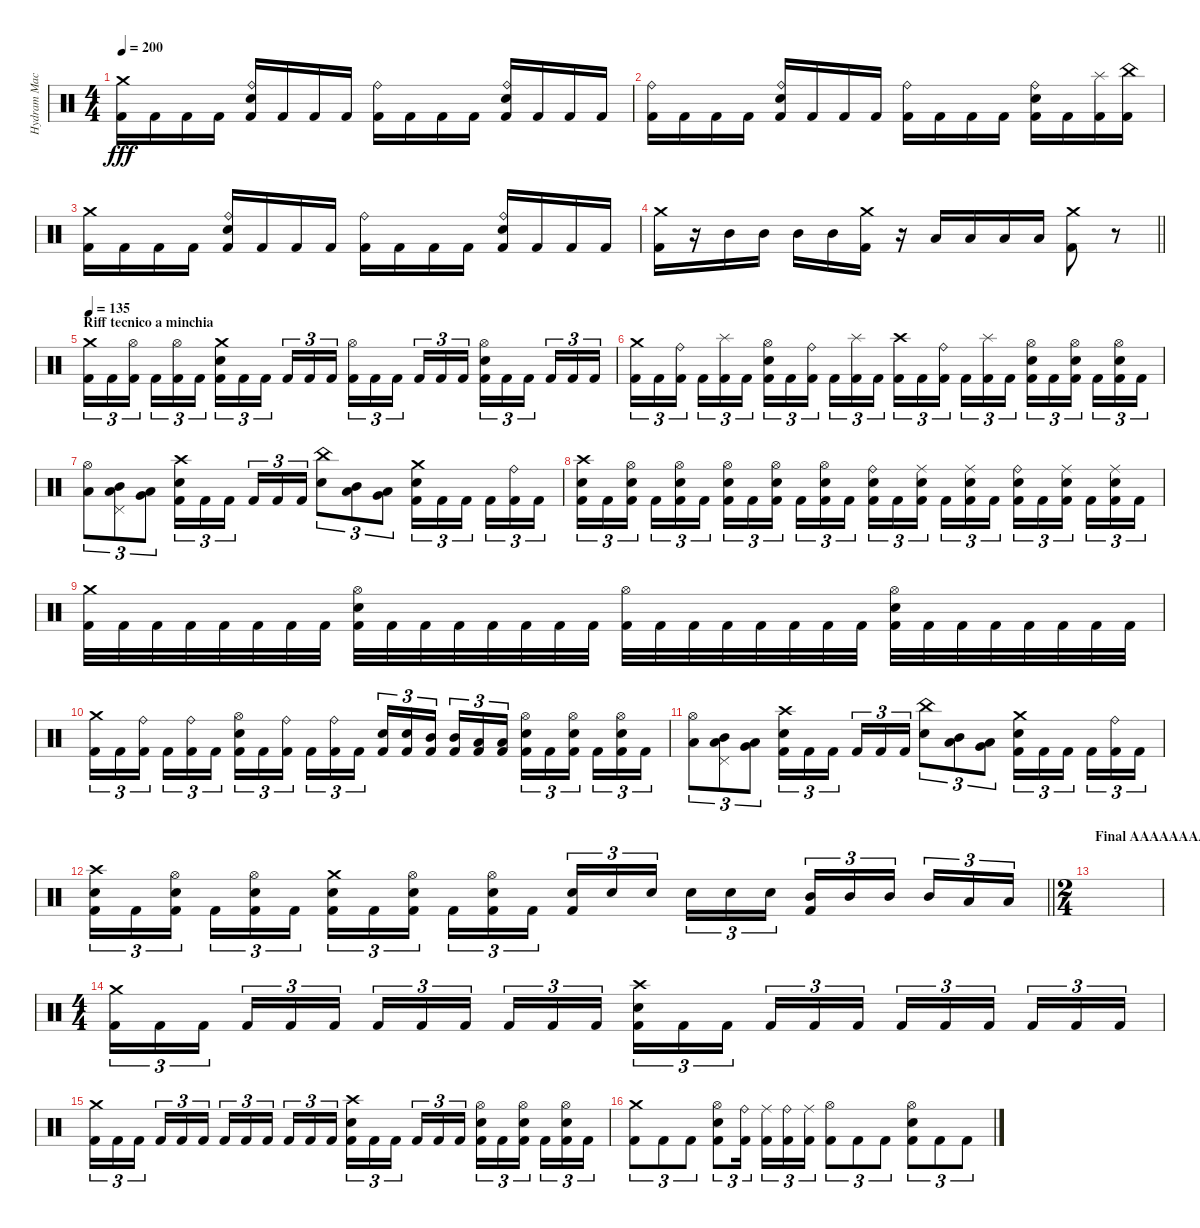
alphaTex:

\track ("Hydram Machine" "Hydram Mac") {instrument percussion}
\staff {score}
\articulation defaults
\ts (4 4)
\tempo 200
\clef neutral
\ks c
("Crash medium (hit)" "Kick (hit) 2").16{dy fff} "Kick (hit) 2".16 "Kick (hit) 2".16 "Kick (hit) 2".16 ("Ride (bell)" "Electric Snare (hit)" "Kick (hit) 2").16 "Kick (hit) 2".16 "Kick (hit) 2".16 "Kick (hit) 2".16 ("Ride (bell)" "Kick (hit) 2").16 "Kick (hit) 2".16 "Kick (hit) 2".16 "Kick (hit) 2".16 ("Ride (bell)" "Electric Snare (hit)" "Kick (hit) 2").16 "Kick (hit) 2".16 "Kick (hit) 2".16 "Kick (hit) 2".16 |
("Ride (bell)" "Kick (hit) 2").16 "Kick (hit) 2".16 "Kick (hit) 2".16 "Kick (hit) 2".16 ("Ride (bell)" "Electric Snare (hit)" "Kick (hit) 2").16 "Kick (hit) 2".16 "Kick (hit) 2".16 "Kick (hit) 2".16 ("Ride (bell)" "Kick (hit) 2").16 "Kick (hit) 2".16 "Kick (hit) 2".16 "Kick (hit) 2".16 ("Ride (bell)" "Electric Snare (hit)" "Kick (hit) 2").16 "Kick (hit) 2".16 ("Splash (hit)" "Kick (hit) 2").16 ("China (hit)" "Kick (hit) 2").16 |
("Crash medium (hit)" "Kick (hit) 2").16 "Kick (hit) 2".16 "Kick (hit) 2".16 "Kick (hit) 2".16 ("Ride (bell)" "Electric Snare (hit)" "Kick (hit) 2").16 "Kick (hit) 2".16 "Kick (hit) 2".16 "Kick (hit) 2".16 ("Ride (bell)" "Kick (hit) 2").16 "Kick (hit) 2".16 "Kick (hit) 2".16 "Kick (hit) 2".16 ("Ride (bell)" "Electric Snare (hit)" "Kick (hit) 2").16 "Kick (hit) 2".16 "Kick (hit) 2".16 "Kick (hit) 2".16 |
\barLineRight lightlight
("Crash medium (hit)" "Kick (hit) 2").16 r.16 "Mid Tom (hit)".16 "Mid Tom (hit)".16 "Mid Tom (hit)".16 "Mid Tom (hit)".16 ("Crash medium (hit)" "Kick (hit) 2").16 r.16 "Low Tom (hit)".16 "Low Tom (hit)".16 "Low Tom (hit)".16 "Low Tom (hit)".16 ("Crash medium (hit)" "Kick (hit) 2").8 r.8 |
\section ("" "Riff tecnico a minchia")
\tempo 135
("Crash medium (hit)" "Kick (hit) 2").16{tu (3 2)} "Kick (hit) 2".16{tu (3 2)} ("Hi-Hat (open)" "Kick (hit) 2").16{tu (3 2) beam splitsecondary} "Kick (hit) 2".16{tu (3 2)} ("Hi-Hat (open)" "Kick (hit) 2").16{tu (3 2)} "Kick (hit) 2".16{tu (3 2)} ("Crash medium (hit)" "Electric Snare (hit)" "Kick (hit) 2").16{tu (3 2)} "Kick (hit) 2".16{tu (3 2)} "Kick (hit) 2".16{tu (3 2) beam splitsecondary} "Kick (hit) 2".16{tu (3 2)} "Kick (hit) 2".16{tu (3 2)} "Kick (hit) 2".16{tu (3 2)} ("Hi-Hat (open)" "Kick (hit) 2").16{tu (3 2)} "Kick (hit) 2".16{tu (3 2)} "Kick (hit) 2".16{tu (3 2) beam splitsecondary} "Kick (hit) 2".16{tu (3 2)} "Kick (hit) 2".16{tu (3 2)} "Kick (hit) 2".16{tu (3 2)} ("Hi-Hat (open)" "Electric Snare (hit)" "Kick (hit) 2").16{tu (3 2)} "Kick (hit) 2".16{tu (3 2)} "Kick (hit) 2".16{tu (3 2) beam splitsecondary} "Kick (hit) 2".16{tu (3 2)} "Kick (hit) 2".16{tu (3 2)} "Kick (hit) 2".16{tu (3 2)} |
("Crash medium (hit)" "Kick (hit) 2").16{tu (3 2)} "Kick (hit) 2".16{tu (3 2)} ("Ride (bell)" "Kick (hit) 2").16{tu (3 2) beam splitsecondary} "Kick (hit) 2".16{tu (3 2)} ("Splash (hit)" "Kick (hit) 2").16{tu (3 2)} "Kick (hit) 2".16{tu (3 2)} ("Hi-Hat (open)" "Electric Snare (hit)" "Kick (hit) 2").16{tu (3 2)} "Kick (hit) 2".16{tu (3 2)} ("Ride (bell)" "Kick (hit) 2").16{tu (3 2) beam splitsecondary} "Kick (hit) 2".16{tu (3 2)} ("Splash (hit)" "Kick (hit) 2").16{tu (3 2)} "Kick (hit) 2".16{tu (3 2)} ("Crash high (hit)" "Kick (hit) 2").16{tu (3 2)} "Kick (hit) 2".16{tu (3 2)} ("Ride (bell)" "Kick (hit) 2").16{tu (3 2) beam splitsecondary} "Kick (hit) 2".16{tu (3 2)} ("Splash (hit)" "Kick (hit) 2").16{tu (3 2)} "Kick (hit) 2".16{tu (3 2)} ("Hi-Hat (open)" "Electric Snare (hit)" "Kick (hit) 2").16{tu (3 2)} "Kick (hit) 2".16{tu (3 2)} ("Hi-Hat (open)" "Electric Snare (hit)" "Kick (hit) 2").16{tu (3 2) beam splitsecondary} "Kick (hit) 2".16{tu (3 2)} ("Hi-Hat (open)" "Electric Snare (hit)" "Kick (hit) 2").16{tu (3 2)} "Kick (hit) 2".16{tu (3 2)} |
("Hi-Hat (open)" "Low Tom (hit)").8{tu (3 2)} ("Pedal Hi-Hat (hit)" "Mid Tom (hit)" "Low Tom (hit)").8{tu (3 2)} ("Low Tom (hit)" "Very Low Tom (hit)").8{tu (3 2)} ("Crash high (hit)" "Electric Snare (hit)" "Kick (hit) 2").16{tu (3 2)} "Kick (hit) 2".16{tu (3 2)} "Kick (hit) 2".16{tu (3 2) beam splitsecondary} "Kick (hit) 2".16{tu (3 2)} "Kick (hit) 2".16{tu (3 2)} "Kick (hit) 2".16{tu (3 2)} ("China (hit)" "Electric Snare (hit)").8{tu (3 2)} ("Mid Tom (hit)" "Low Tom (hit)").8{tu (3 2)} ("Low Tom (hit)" "Very Low Tom (hit)").8{tu (3 2)} ("Crash medium (hit)" "Electric Snare (hit)" "Kick (hit) 2").16{tu (3 2)} "Kick (hit) 2".16{tu (3 2)} "Kick (hit) 2".16{tu (3 2) beam splitsecondary} "Kick (hit) 2".16{tu (3 2)} ("Ride (bell)" "Kick (hit) 2").16{tu (3 2)} "Kick (hit) 2".16{tu (3 2)} |
("Crash high (hit)" "Electric Snare (hit)" "Kick (hit) 2").16{tu (3 2)} "Kick (hit) 2".16{tu (3 2)} ("Hi-Hat (open)" "Electric Snare (hit)" "Kick (hit) 2").16{tu (3 2) beam splitsecondary} "Kick (hit) 2".16{tu (3 2)} ("Hi-Hat (open)" "Electric Snare (hit)" "Kick (hit) 2").16{tu (3 2)} "Kick (hit) 2".16{tu (3 2)} ("Hi-Hat (open)" "Electric Snare (hit)" "Kick (hit) 2").16{tu (3 2)} "Kick (hit) 2".16{tu (3 2)} ("Hi-Hat (open)" "Electric Snare (hit)" "Kick (hit) 2").16{tu (3 2) beam splitsecondary} "Kick (hit) 2".16{tu (3 2)} ("Hi-Hat (open)" "Electric Snare (hit)" "Kick (hit) 2").16{tu (3 2)} "Kick (hit) 2".16{tu (3 2)} ("Ride (bell)" "Electric Snare (hit)" "Kick (hit) 2").16{tu (3 2)} "Kick (hit) 2".16{tu (3 2)} ("Ride (middle)" "Electric Snare (hit)" "Kick (hit) 2").16{tu (3 2) beam splitsecondary} "Kick (hit) 2".16{tu (3 2)} ("Ride (middle)" "Electric Snare (hit)" "Kick (hit) 2").16{tu (3 2)} "Kick (hit) 2".16{tu (3 2)} ("Ride (bell)" "Electric Snare (hit)" "Kick (hit) 2").16{tu (3 2)} "Kick (hit) 2".16{tu (3 2)} ("Ride (middle)" "Electric Snare (hit)" "Kick (hit) 2").16{tu (3 2) beam splitsecondary} "Kick (hit) 2".16{tu (3 2)} ("Ride (middle)" "Electric Snare (hit)" "Kick (hit) 2").16{tu (3 2)} "Kick (hit) 2".16{tu (3 2)} |
("Crash medium (hit)" "Kick (hit) 2").32 "Kick (hit) 2".32 "Kick (hit) 2".32 "Kick (hit) 2".32 "Kick (hit) 2".32 "Kick (hit) 2".32 "Kick (hit) 2".32 "Kick (hit) 2".32 ("Hi-Hat (open)" "Electric Snare (hit)" "Kick (hit) 2").32 "Kick (hit) 2".32 "Kick (hit) 2".32 "Kick (hit) 2".32 "Kick (hit) 2".32 "Kick (hit) 2".32 "Kick (hit) 2".32 "Kick (hit) 2".32 ("Hi-Hat (open)" "Kick (hit) 2").32 "Kick (hit) 2".32 "Kick (hit) 2".32 "Kick (hit) 2".32 "Kick (hit) 2".32 "Kick (hit) 2".32 "Kick (hit) 2".32 "Kick (hit) 2".32 ("Hi-Hat (open)" "Electric Snare (hit)" "Kick (hit) 2").32 "Kick (hit) 2".32 "Kick (hit) 2".32 "Kick (hit) 2".32 "Kick (hit) 2".32 "Kick (hit) 2".32 "Kick (hit) 2".32 "Kick (hit) 2".32 |
("Crash medium (hit)" "Kick (hit) 2").16{tu (3 2)} "Kick (hit) 2".16{tu (3 2)} ("Ride (bell)" "Kick (hit) 2").16{tu (3 2) beam splitsecondary} "Kick (hit) 2".16{tu (3 2)} ("Ride (bell)" "Kick (hit) 2").16{tu (3 2)} "Kick (hit) 2".16{tu (3 2)} ("Hi-Hat (open)" "Electric Snare (hit)" "Kick (hit) 2").16{tu (3 2)} "Kick (hit) 2".16{tu (3 2)} ("Ride (bell)" "Kick (hit) 2").16{tu (3 2) beam splitsecondary} "Kick (hit) 2".16{tu (3 2)} ("Ride (bell)" "Kick (hit) 2").16{tu (3 2)} "Kick (hit) 2".16{tu (3 2)} ("Electric Snare (hit)" "Kick (hit) 2").16{tu (3 2)} ("Electric Snare (hit)" "Kick (hit) 2").16{tu (3 2)} ("Mid Tom (hit)" "Kick (hit) 2").16{tu (3 2) beam splitsecondary} ("Mid Tom (hit)" "Kick (hit) 2").16{tu (3 2)} ("Low Tom (hit)" "Kick (hit) 2").16{tu (3 2)} ("Low Tom (hit)" "Kick (hit) 2").16{tu (3 2)} ("Hi-Hat (open)" "Electric Snare (hit)" "Kick (hit) 2").16{tu (3 2)} "Kick (hit) 2".16{tu (3 2)} ("Hi-Hat (open)" "Electric Snare (hit)" "Kick (hit) 2").16{tu (3 2) beam splitsecondary} "Kick (hit) 2".16{tu (3 2)} ("Hi-Hat (open)" "Electric Snare (hit)" "Kick (hit) 2").16{tu (3 2)} "Kick (hit) 2".16{tu (3 2)} |
("Hi-Hat (open)" "Low Tom (hit)").8{tu (3 2)} ("Pedal Hi-Hat (hit)" "Mid Tom (hit)" "Low Tom (hit)").8{tu (3 2)} ("Low Tom (hit)" "Very Low Tom (hit)").8{tu (3 2)} ("Crash high (hit)" "Electric Snare (hit)" "Kick (hit) 2").16{tu (3 2)} "Kick (hit) 2".16{tu (3 2)} "Kick (hit) 2".16{tu (3 2) beam splitsecondary} "Kick (hit) 2".16{tu (3 2)} "Kick (hit) 2".16{tu (3 2)} "Kick (hit) 2".16{tu (3 2)} ("China (hit)" "Electric Snare (hit)").8{tu (3 2)} ("Mid Tom (hit)" "Low Tom (hit)").8{tu (3 2)} ("Low Tom (hit)" "Very Low Tom (hit)").8{tu (3 2)} ("Crash medium (hit)" "Electric Snare (hit)" "Kick (hit) 2").16{tu (3 2)} "Kick (hit) 2".16{tu (3 2)} "Kick (hit) 2".16{tu (3 2) beam splitsecondary} "Kick (hit) 2".16{tu (3 2)} ("Ride (bell)" "Kick (hit) 2").16{tu (3 2)} "Kick (hit) 2".16{tu (3 2)} |
\barLineRight lightlight
("Crash high (hit)" "Electric Snare (hit)" "Kick (hit) 2").16{tu (3 2)} "Kick (hit) 2".16{tu (3 2)} ("Hi-Hat (open)" "Electric Snare (hit)" "Kick (hit) 2").16{tu (3 2) beam splitsecondary} "Kick (hit) 2".16{tu (3 2)} ("Hi-Hat (open)" "Electric Snare (hit)" "Kick (hit) 2").16{tu (3 2)} "Kick (hit) 2".16{tu (3 2)} ("Crash medium (hit)" "Electric Snare (hit)" "Kick (hit) 2").16{tu (3 2)} "Kick (hit) 2".16{tu (3 2)} ("Hi-Hat (open)" "Electric Snare (hit)" "Kick (hit) 2").16{tu (3 2) beam splitsecondary} "Kick (hit) 2".16{tu (3 2)} ("Hi-Hat (open)" "Electric Snare (hit)" "Kick (hit) 2").16{tu (3 2)} "Kick (hit) 2".16{tu (3 2)} ("Electric Snare (hit)" "Kick (hit) 2").16{tu (3 2)} "Electric Snare (hit)".16{tu (3 2)} "Electric Snare (hit)".16{tu (3 2) beam splitsecondary} "Electric Snare (hit)".16{tu (3 2)} "Electric Snare (hit)".16{tu (3 2)} "Electric Snare (hit)".16{tu (3 2)} ("Mid Tom (hit)" "Kick (hit) 2").16{tu (3 2)} "Mid Tom (hit)".16{tu (3 2)} "Mid Tom (hit)".16{tu (3 2) beam splitsecondary} "Mid Tom (hit)".16{tu (3 2)} "Low Tom (hit)".16{tu (3 2)} "Low Tom (hit)".16{tu (3 2)} |
\ts (2 4)
\section ("" "Final AAAAAAAAAH D:")
|
\ts (4 4)
("Crash medium (hit)" "Kick (hit) 2").16{tu (3 2)} "Kick (hit) 2".16{tu (3 2)} "Kick (hit) 2".16{tu (3 2) beam splitsecondary} "Kick (hit) 2".16{tu (3 2)} "Kick (hit) 2".16{tu (3 2)} "Kick (hit) 2".16{tu (3 2)} "Kick (hit) 2".16{tu (3 2)} "Kick (hit) 2".16{tu (3 2)} "Kick (hit) 2".16{tu (3 2) beam splitsecondary} "Kick (hit) 2".16{tu (3 2)} "Kick (hit) 2".16{tu (3 2)} "Kick (hit) 2".16{tu (3 2)} ("Crash high (hit)" "Electric Snare (hit)" "Kick (hit) 2").16{tu (3 2)} "Kick (hit) 2".16{tu (3 2)} "Kick (hit) 2".16{tu (3 2) beam splitsecondary} "Kick (hit) 2".16{tu (3 2)} "Kick (hit) 2".16{tu (3 2)} "Kick (hit) 2".16{tu (3 2)} "Kick (hit) 2".16{tu (3 2)} "Kick (hit) 2".16{tu (3 2)} "Kick (hit) 2".16{tu (3 2) beam splitsecondary} "Kick (hit) 2".16{tu (3 2)} "Kick (hit) 2".16{tu (3 2)} "Kick (hit) 2".16{tu (3 2)} |
("Crash medium (hit)" "Kick (hit) 2").16{tu (3 2)} "Kick (hit) 2".16{tu (3 2)} "Kick (hit) 2".16{tu (3 2) beam splitsecondary} "Kick (hit) 2".16{tu (3 2)} "Kick (hit) 2".16{tu (3 2)} "Kick (hit) 2".16{tu (3 2)} "Kick (hit) 2".16{tu (3 2)} "Kick (hit) 2".16{tu (3 2)} "Kick (hit) 2".16{tu (3 2) beam splitsecondary} "Kick (hit) 2".16{tu (3 2)} "Kick (hit) 2".16{tu (3 2)} "Kick (hit) 2".16{tu (3 2)} ("Crash high (hit)" "Electric Snare (hit)" "Kick (hit) 2").16{tu (3 2)} "Kick (hit) 2".16{tu (3 2)} "Kick (hit) 2".16{tu (3 2) beam splitsecondary} "Kick (hit) 2".16{tu (3 2)} "Kick (hit) 2".16{tu (3 2)} "Kick (hit) 2".16{tu (3 2)} ("Hi-Hat (open)" "Electric Snare (hit)" "Kick (hit) 2").16{tu (3 2)} "Kick (hit) 2".16{tu (3 2)} ("Hi-Hat (open)" "Electric Snare (hit)" "Kick (hit) 2").16{tu (3 2) beam splitsecondary} "Kick (hit) 2".16{tu (3 2)} ("Hi-Hat (open)" "Electric Snare (hit)" "Kick (hit) 2").16{tu (3 2)} "Kick (hit) 2".16{tu (3 2)} |
("Crash medium (hit)" "Kick (hit) 2").8{tu (3 2)} "Kick (hit) 2".8{tu (3 2)} "Kick (hit) 2".8{tu (3 2)} ("Hi-Hat (open)" "Electric Snare (hit)" "Kick (hit) 2").8{tu (3 2)} ("Ride (bell)" "Kick (hit) 2").16{tu (3 2) beam splitsecondary} ("Ride (middle)" "Kick (hit) 2").16{tu (3 2)} ("Ride (bell)" "Kick (hit) 2").16{tu (3 2)} ("Ride (middle)" "Kick (hit) 2").16{tu (3 2)} ("Hi-Hat (open)" "Kick (hit) 2").8{tu (3 2)} "Kick (hit) 2".8{tu (3 2)} "Kick (hit) 2".8{tu (3 2)} ("Hi-Hat (open)" "Electric Snare (hit)" "Kick (hit) 2").8{tu (3 2)} "Kick (hit) 2".8{tu (3 2)} "Kick (hit) 2".8{tu (3 2)}
